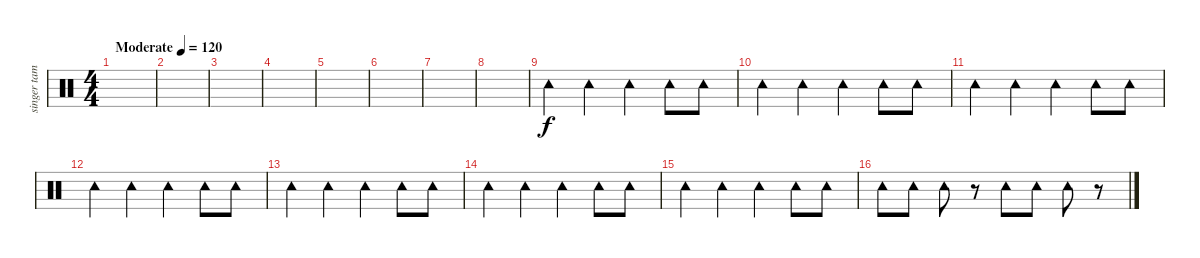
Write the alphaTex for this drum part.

\track ("singer tambo" "singer tam") {instrument percussion}
\staff {score}
\articulation defaults
\ts (4 4)
\tempo (120 "Moderate")
\clef neutral
\ks c
|
|
|
|
|
|
|
|
"Tambourine (hit)".4 "Tambourine (hit)".4 "Tambourine (hit)".4 "Tambourine (hit)".8 "Tambourine (hit)".8 |
"Tambourine (hit)".4 "Tambourine (hit)".4 "Tambourine (hit)".4 "Tambourine (hit)".8 "Tambourine (hit)".8 |
"Tambourine (hit)".4 "Tambourine (hit)".4 "Tambourine (hit)".4 "Tambourine (hit)".8 "Tambourine (hit)".8 |
"Tambourine (hit)".4 "Tambourine (hit)".4 "Tambourine (hit)".4 "Tambourine (hit)".8 "Tambourine (hit)".8 |
"Tambourine (hit)".4 "Tambourine (hit)".4 "Tambourine (hit)".4 "Tambourine (hit)".8 "Tambourine (hit)".8 |
"Tambourine (hit)".4 "Tambourine (hit)".4 "Tambourine (hit)".4 "Tambourine (hit)".8 "Tambourine (hit)".8 |
"Tambourine (hit)".4 "Tambourine (hit)".4 "Tambourine (hit)".4 "Tambourine (hit)".8 "Tambourine (hit)".8 |
"Tambourine (hit)".8 "Tambourine (hit)".8 "Tambourine (hit)".8 r.8 "Tambourine (hit)".8 "Tambourine (hit)".8 "Tambourine (hit)".8 r.8
